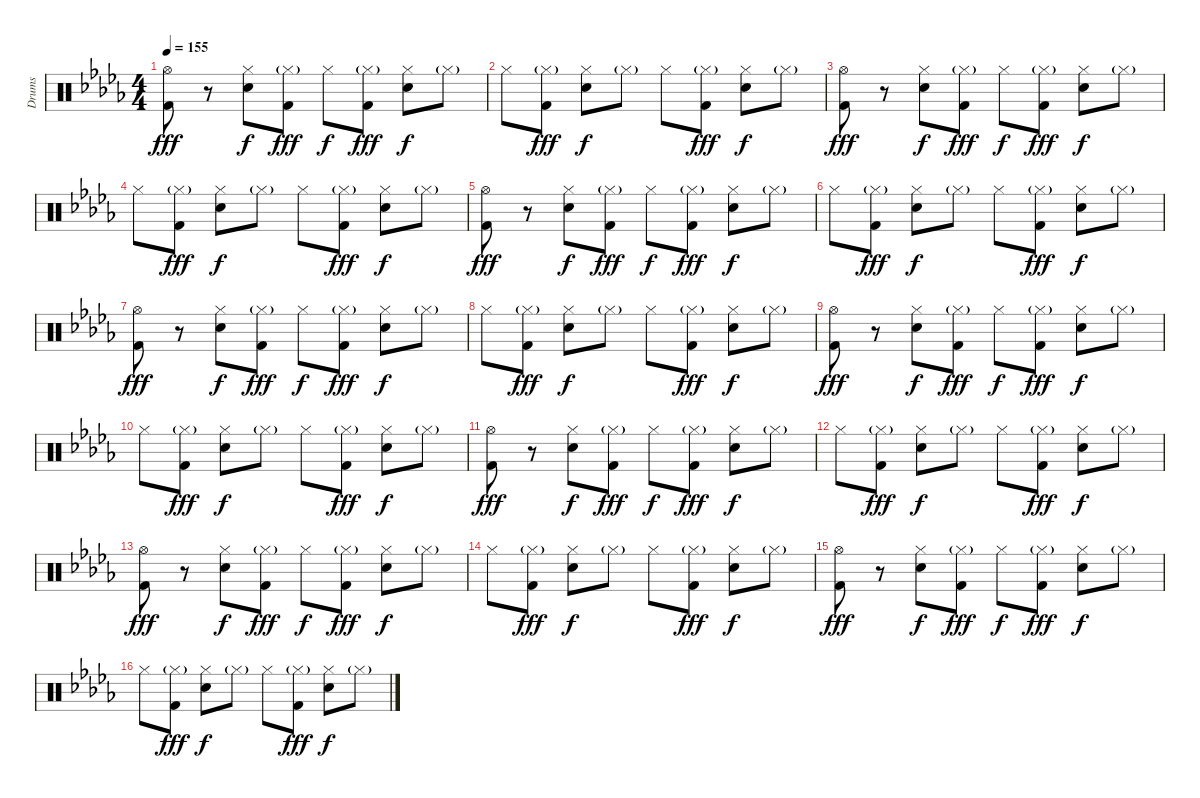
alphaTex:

\track ("Drums" "Drums") {instrument percussion}
\staff {score}
\articulation defaults
\ts (4 4)
\tempo 155
\clef neutral
\ks db
("Hi-Hat (open)" "Kick (hit) 2").8{dy fff} r.8 ("Hi-Hat (closed)" "Electric Snare (hit)").8{dy f} ("Hi-Hat (closed)"{g} "Kick (hit) 2").8{dy fff} "Hi-Hat (closed)".8{dy f} ("Hi-Hat (closed)"{g} "Kick (hit) 2").8{dy fff} ("Hi-Hat (closed)" "Electric Snare (hit)").8{dy f} "Hi-Hat (closed)"{g}.8 |
"Hi-Hat (closed)".8 ("Hi-Hat (closed)"{g} "Kick (hit) 2").8{dy fff} ("Hi-Hat (closed)" "Electric Snare (hit)").8{dy f} "Hi-Hat (closed)"{g}.8 "Hi-Hat (closed)".8 ("Hi-Hat (closed)"{g} "Kick (hit) 2").8{dy fff} ("Hi-Hat (closed)" "Electric Snare (hit)").8{dy f} "Hi-Hat (closed)"{g}.8 |
("Hi-Hat (open)" "Kick (hit) 2").8{dy fff} r.8 ("Hi-Hat (closed)" "Electric Snare (hit)").8{dy f} ("Hi-Hat (closed)"{g} "Kick (hit) 2").8{dy fff} "Hi-Hat (closed)".8{dy f} ("Hi-Hat (closed)"{g} "Kick (hit) 2").8{dy fff} ("Hi-Hat (closed)" "Electric Snare (hit)").8{dy f} "Hi-Hat (closed)"{g}.8 |
"Hi-Hat (closed)".8 ("Hi-Hat (closed)"{g} "Kick (hit) 2").8{dy fff} ("Hi-Hat (closed)" "Electric Snare (hit)").8{dy f} "Hi-Hat (closed)"{g}.8 "Hi-Hat (closed)".8 ("Hi-Hat (closed)"{g} "Kick (hit) 2").8{dy fff} ("Hi-Hat (closed)" "Electric Snare (hit)").8{dy f} "Hi-Hat (closed)"{g}.8 |
("Hi-Hat (open)" "Kick (hit) 2").8{dy fff} r.8 ("Hi-Hat (closed)" "Electric Snare (hit)").8{dy f} ("Hi-Hat (closed)"{g} "Kick (hit) 2").8{dy fff} "Hi-Hat (closed)".8{dy f} ("Hi-Hat (closed)"{g} "Kick (hit) 2").8{dy fff} ("Hi-Hat (closed)" "Electric Snare (hit)").8{dy f} "Hi-Hat (closed)"{g}.8 |
"Hi-Hat (closed)".8 ("Hi-Hat (closed)"{g} "Kick (hit) 2").8{dy fff} ("Hi-Hat (closed)" "Electric Snare (hit)").8{dy f} "Hi-Hat (closed)"{g}.8 "Hi-Hat (closed)".8 ("Hi-Hat (closed)"{g} "Kick (hit) 2").8{dy fff} ("Hi-Hat (closed)" "Electric Snare (hit)").8{dy f} "Hi-Hat (closed)"{g}.8 |
("Hi-Hat (open)" "Kick (hit) 2").8{dy fff} r.8 ("Hi-Hat (closed)" "Electric Snare (hit)").8{dy f} ("Hi-Hat (closed)"{g} "Kick (hit) 2").8{dy fff} "Hi-Hat (closed)".8{dy f} ("Hi-Hat (closed)"{g} "Kick (hit) 2").8{dy fff} ("Hi-Hat (closed)" "Electric Snare (hit)").8{dy f} "Hi-Hat (closed)"{g}.8 |
"Hi-Hat (closed)".8 ("Hi-Hat (closed)"{g} "Kick (hit) 2").8{dy fff} ("Hi-Hat (closed)" "Electric Snare (hit)").8{dy f} "Hi-Hat (closed)"{g}.8 "Hi-Hat (closed)".8 ("Hi-Hat (closed)"{g} "Kick (hit) 2").8{dy fff} ("Hi-Hat (closed)" "Electric Snare (hit)").8{dy f} "Hi-Hat (closed)"{g}.8 |
("Hi-Hat (open)" "Kick (hit) 2").8{dy fff} r.8 ("Hi-Hat (closed)" "Electric Snare (hit)").8{dy f} ("Hi-Hat (closed)"{g} "Kick (hit) 2").8{dy fff} "Hi-Hat (closed)".8{dy f} ("Hi-Hat (closed)"{g} "Kick (hit) 2").8{dy fff} ("Hi-Hat (closed)" "Electric Snare (hit)").8{dy f} "Hi-Hat (closed)"{g}.8 |
"Hi-Hat (closed)".8 ("Hi-Hat (closed)"{g} "Kick (hit) 2").8{dy fff} ("Hi-Hat (closed)" "Electric Snare (hit)").8{dy f} "Hi-Hat (closed)"{g}.8 "Hi-Hat (closed)".8 ("Hi-Hat (closed)"{g} "Kick (hit) 2").8{dy fff} ("Hi-Hat (closed)" "Electric Snare (hit)").8{dy f} "Hi-Hat (closed)"{g}.8 |
("Hi-Hat (open)" "Kick (hit) 2").8{dy fff} r.8 ("Hi-Hat (closed)" "Electric Snare (hit)").8{dy f} ("Hi-Hat (closed)"{g} "Kick (hit) 2").8{dy fff} "Hi-Hat (closed)".8{dy f} ("Hi-Hat (closed)"{g} "Kick (hit) 2").8{dy fff} ("Hi-Hat (closed)" "Electric Snare (hit)").8{dy f} "Hi-Hat (closed)"{g}.8 |
"Hi-Hat (closed)".8 ("Hi-Hat (closed)"{g} "Kick (hit) 2").8{dy fff} ("Hi-Hat (closed)" "Electric Snare (hit)").8{dy f} "Hi-Hat (closed)"{g}.8 "Hi-Hat (closed)".8 ("Hi-Hat (closed)"{g} "Kick (hit) 2").8{dy fff} ("Hi-Hat (closed)" "Electric Snare (hit)").8{dy f} "Hi-Hat (closed)"{g}.8 |
("Hi-Hat (open)" "Kick (hit) 2").8{dy fff} r.8 ("Hi-Hat (closed)" "Electric Snare (hit)").8{dy f} ("Hi-Hat (closed)"{g} "Kick (hit) 2").8{dy fff} "Hi-Hat (closed)".8{dy f} ("Hi-Hat (closed)"{g} "Kick (hit) 2").8{dy fff} ("Hi-Hat (closed)" "Electric Snare (hit)").8{dy f} "Hi-Hat (closed)"{g}.8 |
"Hi-Hat (closed)".8 ("Hi-Hat (closed)"{g} "Kick (hit) 2").8{dy fff} ("Hi-Hat (closed)" "Electric Snare (hit)").8{dy f} "Hi-Hat (closed)"{g}.8 "Hi-Hat (closed)".8 ("Hi-Hat (closed)"{g} "Kick (hit) 2").8{dy fff} ("Hi-Hat (closed)" "Electric Snare (hit)").8{dy f} "Hi-Hat (closed)"{g}.8 |
("Hi-Hat (open)" "Kick (hit) 2").8{dy fff} r.8 ("Hi-Hat (closed)" "Electric Snare (hit)").8{dy f} ("Hi-Hat (closed)"{g} "Kick (hit) 2").8{dy fff} "Hi-Hat (closed)".8{dy f} ("Hi-Hat (closed)"{g} "Kick (hit) 2").8{dy fff} ("Hi-Hat (closed)" "Electric Snare (hit)").8{dy f} "Hi-Hat (closed)"{g}.8 |
"Hi-Hat (closed)".8 ("Hi-Hat (closed)"{g} "Kick (hit) 2").8{dy fff} ("Hi-Hat (closed)" "Electric Snare (hit)").8{dy f} "Hi-Hat (closed)"{g}.8 "Hi-Hat (closed)".8 ("Hi-Hat (closed)"{g} "Kick (hit) 2").8{dy fff} ("Hi-Hat (closed)" "Electric Snare (hit)").8{dy f} "Hi-Hat (closed)"{g}.8
